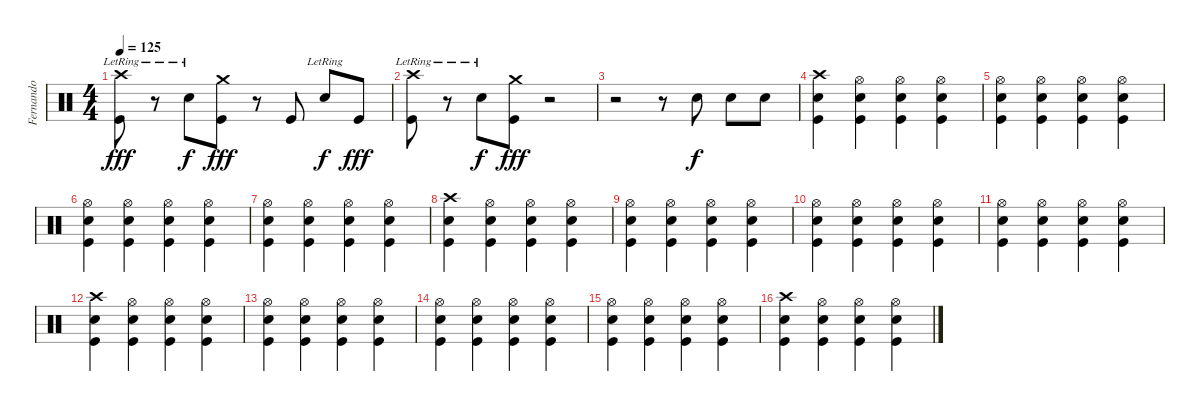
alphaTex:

\track ("Fernando" "Fernando") {instrument percussion}
\staff {score}
\articulation defaults
\ts (4 4)
\tempo 125
\clef neutral
\ks c
("Crash high (hit)" "Kick (hit)"{lr}).8{dy fff} r.8 "Electric Snare (hit)"{lr}.8{dy f} ("Crash medium (hit)" "Kick (hit)").8{dy fff} r.8 "Kick (hit)".8 "Electric Snare (hit)"{lr}.8{dy f} "Kick (hit)".8{dy fff} |
("Crash high (hit)" "Kick (hit)"{lr}).8 r.8 "Electric Snare (hit)"{lr}.8{dy f} ("Crash medium (hit)" "Kick (hit)").8{dy fff} r.2 |
r.2 r.8 "Electric Snare (hit)".8{dy f} "Electric Snare (hit)".8 "Electric Snare (hit)".8 |
("Crash high (hit)" "Electric Snare (hit)" "Kick (hit)").4 ("Hi-Hat (open)" "Electric Snare (hit)" "Kick (hit)").4 ("Hi-Hat (open)" "Electric Snare (hit)" "Kick (hit)").4 ("Hi-Hat (open)" "Electric Snare (hit)" "Kick (hit)").4 |
("Hi-Hat (open)" "Electric Snare (hit)" "Kick (hit)").4 ("Hi-Hat (open)" "Electric Snare (hit)" "Kick (hit)").4 ("Hi-Hat (open)" "Electric Snare (hit)" "Kick (hit)").4 ("Hi-Hat (open)" "Electric Snare (hit)" "Kick (hit)").4 |
("Hi-Hat (open)" "Electric Snare (hit)" "Kick (hit)").4 ("Hi-Hat (open)" "Electric Snare (hit)" "Kick (hit)").4 ("Hi-Hat (open)" "Electric Snare (hit)" "Kick (hit)").4 ("Hi-Hat (open)" "Electric Snare (hit)" "Kick (hit)").4 |
("Hi-Hat (open)" "Electric Snare (hit)" "Kick (hit)").4 ("Hi-Hat (open)" "Electric Snare (hit)" "Kick (hit)").4 ("Hi-Hat (open)" "Electric Snare (hit)" "Kick (hit)").4 ("Hi-Hat (open)" "Electric Snare (hit)" "Kick (hit)").4 |
("Crash high (hit)" "Electric Snare (hit)" "Kick (hit)").4 ("Hi-Hat (open)" "Electric Snare (hit)" "Kick (hit)").4 ("Hi-Hat (open)" "Electric Snare (hit)" "Kick (hit)").4 ("Hi-Hat (open)" "Electric Snare (hit)" "Kick (hit)").4 |
("Hi-Hat (open)" "Electric Snare (hit)" "Kick (hit)").4 ("Hi-Hat (open)" "Electric Snare (hit)" "Kick (hit)").4 ("Hi-Hat (open)" "Electric Snare (hit)" "Kick (hit)").4 ("Hi-Hat (open)" "Electric Snare (hit)" "Kick (hit)").4 |
("Hi-Hat (open)" "Electric Snare (hit)" "Kick (hit)").4 ("Hi-Hat (open)" "Electric Snare (hit)" "Kick (hit)").4 ("Hi-Hat (open)" "Electric Snare (hit)" "Kick (hit)").4 ("Hi-Hat (open)" "Electric Snare (hit)" "Kick (hit)").4 |
("Hi-Hat (open)" "Electric Snare (hit)" "Kick (hit)").4 ("Hi-Hat (open)" "Electric Snare (hit)" "Kick (hit)").4 ("Hi-Hat (open)" "Electric Snare (hit)" "Kick (hit)").4 ("Hi-Hat (open)" "Electric Snare (hit)" "Kick (hit)").4 |
("Crash high (hit)" "Electric Snare (hit)" "Kick (hit)").4 ("Hi-Hat (open)" "Electric Snare (hit)" "Kick (hit)").4 ("Hi-Hat (open)" "Electric Snare (hit)" "Kick (hit)").4 ("Hi-Hat (open)" "Electric Snare (hit)" "Kick (hit)").4 |
("Hi-Hat (open)" "Electric Snare (hit)" "Kick (hit)").4 ("Hi-Hat (open)" "Electric Snare (hit)" "Kick (hit)").4 ("Hi-Hat (open)" "Electric Snare (hit)" "Kick (hit)").4 ("Hi-Hat (open)" "Electric Snare (hit)" "Kick (hit)").4 |
("Hi-Hat (open)" "Electric Snare (hit)" "Kick (hit)").4 ("Hi-Hat (open)" "Electric Snare (hit)" "Kick (hit)").4 ("Hi-Hat (open)" "Electric Snare (hit)" "Kick (hit)").4 ("Hi-Hat (open)" "Electric Snare (hit)" "Kick (hit)").4 |
("Hi-Hat (open)" "Electric Snare (hit)" "Kick (hit)").4 ("Hi-Hat (open)" "Electric Snare (hit)" "Kick (hit)").4 ("Hi-Hat (open)" "Electric Snare (hit)" "Kick (hit)").4 ("Hi-Hat (open)" "Electric Snare (hit)" "Kick (hit)").4 |
("Crash high (hit)" "Electric Snare (hit)" "Kick (hit)").4 ("Hi-Hat (open)" "Electric Snare (hit)" "Kick (hit)").4 ("Hi-Hat (open)" "Electric Snare (hit)" "Kick (hit)").4 ("Hi-Hat (open)" "Electric Snare (hit)" "Kick (hit)").4
